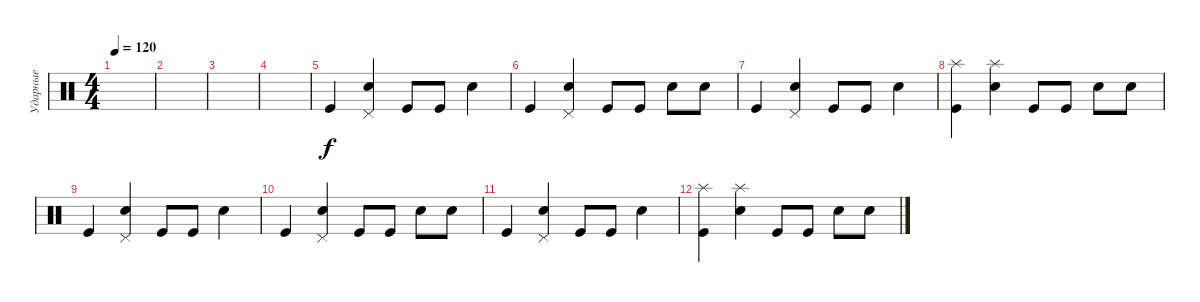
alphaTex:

\track ("Ударные" "Ударные") {instrument percussion}
\staff {score}
\articulation defaults
\ts (4 4)
\tempo 120
\clef neutral
\ks c
|
|
|
|
"Kick (hit)".4 ("Electric Snare (hit)" "Pedal Hi-Hat (hit)").4 "Kick (hit)".8 "Kick (hit)".8 "Electric Snare (hit)".4 |
"Kick (hit)".4 ("Electric Snare (hit)" "Pedal Hi-Hat (hit)").4 "Kick (hit)".8 "Kick (hit)".8 "Electric Snare (hit)".8 "Electric Snare (hit)".8 |
"Kick (hit)".4 ("Electric Snare (hit)" "Pedal Hi-Hat (hit)").4 "Kick (hit)".8 "Kick (hit)".8 "Electric Snare (hit)".4 |
("Kick (hit)" "Splash (hit)").4 ("Electric Snare (hit)" "Splash (hit)").4 "Kick (hit)".8 "Kick (hit)".8 "Electric Snare (hit)".8 "Electric Snare (hit)".8 |
"Kick (hit)".4 ("Electric Snare (hit)" "Pedal Hi-Hat (hit)").4 "Kick (hit)".8 "Kick (hit)".8 "Electric Snare (hit)".4 |
"Kick (hit)".4 ("Electric Snare (hit)" "Pedal Hi-Hat (hit)").4 "Kick (hit)".8 "Kick (hit)".8 "Electric Snare (hit)".8 "Electric Snare (hit)".8 |
"Kick (hit)".4 ("Electric Snare (hit)" "Pedal Hi-Hat (hit)").4 "Kick (hit)".8 "Kick (hit)".8 "Electric Snare (hit)".4 |
("Kick (hit)" "Splash (hit)").4 ("Electric Snare (hit)" "Splash (hit)").4 "Kick (hit)".8 "Kick (hit)".8 "Electric Snare (hit)".8 "Electric Snare (hit)".8
